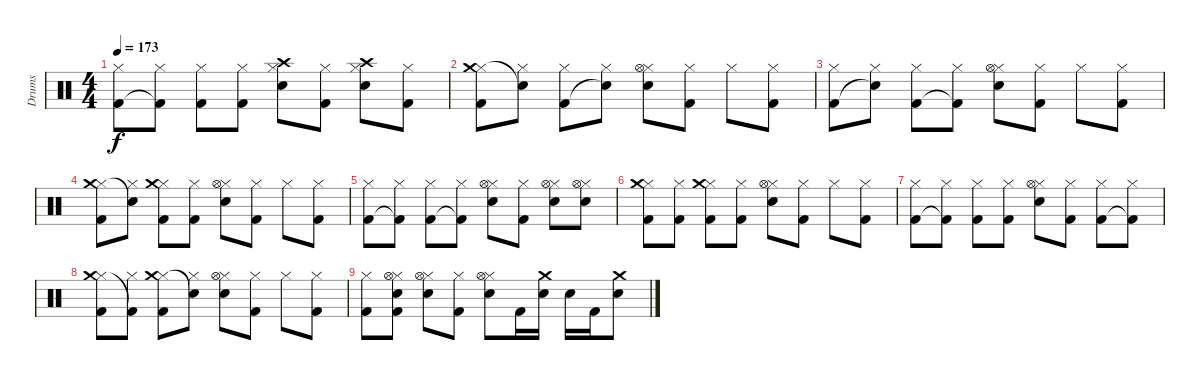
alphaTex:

\track ("Drums" "Drums") {instrument percussion}
\staff {score}
\articulation defaults
\ts (4 4)
\tempo 173
\clef neutral
\ks c
("Hi-Hat (closed)" "Kick (hit) 2").8{dy f} ("Hi-Hat (closed)" "Kick (hit) 2"{t}).8 ("Hi-Hat (closed)" "Kick (hit) 2").8 ("Hi-Hat (closed)" "Kick (hit) 2").8 ("Hi-Hat (closed)" "Crash high (hit)" "Electric Snare (hit)").8 ("Hi-Hat (closed)" "Kick (hit) 2").8 ("Hi-Hat (closed)" "Crash high (hit)" "Electric Snare (hit)").8 ("Hi-Hat (closed)" "Kick (hit) 2").8 |
("Hi-Hat (closed)" "Crash medium (hit)" "Kick (hit) 2").8 ("Hi-Hat (closed)" "Snare (hit)"{t}).8 ("Hi-Hat (closed)" "Kick (hit) 2").8 ("Hi-Hat (closed)" "Snare (hit)"{t}).8 ("Hi-Hat (closed)" "Hi-Hat (open)" "Electric Snare (hit)").8 ("Hi-Hat (closed)" "Kick (hit) 2").8 "Hi-Hat (closed)".8 ("Hi-Hat (closed)" "Kick (hit) 2").8 |
("Hi-Hat (closed)" "Kick (hit) 2").8 ("Hi-Hat (closed)" "Snare (hit)"{t}).8 ("Hi-Hat (closed)" "Kick (hit) 2").8 ("Hi-Hat (closed)" "Kick (hit) 2"{t}).8 ("Hi-Hat (closed)" "Hi-Hat (open)" "Electric Snare (hit)").8 ("Hi-Hat (closed)" "Kick (hit) 2").8 "Hi-Hat (closed)".8 ("Hi-Hat (closed)" "Kick (hit) 2").8 |
("Hi-Hat (closed)" "Crash medium (hit)" "Kick (hit) 2").8 ("Hi-Hat (closed)" "Snare (hit)"{t}).8 ("Hi-Hat (closed)" "Crash medium (hit)" "Kick (hit) 2").8 ("Hi-Hat (closed)" "Kick (hit) 2").8 ("Hi-Hat (closed)" "Hi-Hat (open)" "Electric Snare (hit)").8 ("Hi-Hat (closed)" "Kick (hit) 2").8 "Hi-Hat (closed)".8 ("Hi-Hat (closed)" "Kick (hit) 2").8 |
("Hi-Hat (closed)" "Kick (hit) 2").8 ("Hi-Hat (closed)" "Kick (hit) 2"{t}).8 ("Hi-Hat (closed)" "Kick (hit) 2").8 ("Hi-Hat (closed)" "Kick (hit) 2"{t}).8 ("Hi-Hat (closed)" "Hi-Hat (open)" "Electric Snare (hit)").8 ("Hi-Hat (closed)" "Kick (hit) 2").8 ("Hi-Hat (closed)" "Hi-Hat (open)" "Electric Snare (hit)").8 ("Hi-Hat (closed)" "Hi-Hat (open)" "Electric Snare (hit)").8 |
("Hi-Hat (closed)" "Crash medium (hit)" "Kick (hit) 2").8{volume 0} ("Hi-Hat (closed)" "Kick (hit) 2").8 ("Hi-Hat (closed)" "Crash medium (hit)" "Kick (hit) 2").8 ("Hi-Hat (closed)" "Kick (hit) 2").8 ("Hi-Hat (closed)" "Hi-Hat (open)" "Electric Snare (hit)").8 ("Hi-Hat (closed)" "Kick (hit) 2").8 "Hi-Hat (closed)".8 ("Hi-Hat (closed)" "Kick (hit) 2").8 |
("Hi-Hat (closed)" "Kick (hit) 2").8 ("Hi-Hat (closed)" "Kick (hit) 2"{t}).8 ("Hi-Hat (closed)" "Kick (hit) 2").8 ("Hi-Hat (closed)" "Kick (hit) 2").8 ("Hi-Hat (closed)" "Hi-Hat (open)" "Electric Snare (hit)").8 ("Hi-Hat (closed)" "Kick (hit) 2").8 ("Hi-Hat (closed)" "Kick (hit) 2").8 ("Hi-Hat (closed)" "Kick (hit) 2"{t}).8 |
("Hi-Hat (closed)" "Crash medium (hit)" "Kick (hit) 2").8 ("Hi-Hat (closed)" "Kick (hit) 2"{t}).8 ("Hi-Hat (closed)" "Crash medium (hit)" "Kick (hit) 2").8 ("Hi-Hat (closed)" "Snare (hit)"{t}).8 ("Hi-Hat (closed)" "Hi-Hat (open)" "Electric Snare (hit)").8 ("Hi-Hat (closed)" "Kick (hit) 2").8 "Hi-Hat (closed)".8 ("Hi-Hat (closed)" "Kick (hit) 2").8 |
("Hi-Hat (closed)" "Kick (hit) 2").8 ("Hi-Hat (closed)" "Hi-Hat (open)" "Electric Snare (hit)" "Kick (hit) 2").8 ("Hi-Hat (closed)" "Hi-Hat (open)" "Electric Snare (hit)").8 ("Hi-Hat (closed)" "Kick (hit) 2").8 ("Hi-Hat (closed)" "Hi-Hat (open)" "Electric Snare (hit)").8 "Kick (hit) 2".16 ("Crash medium (hit)" "Electric Snare (hit)").16 "Electric Snare (hit)".16 "Kick (hit) 2".16 ("Crash medium (hit)" "Electric Snare (hit)").8
